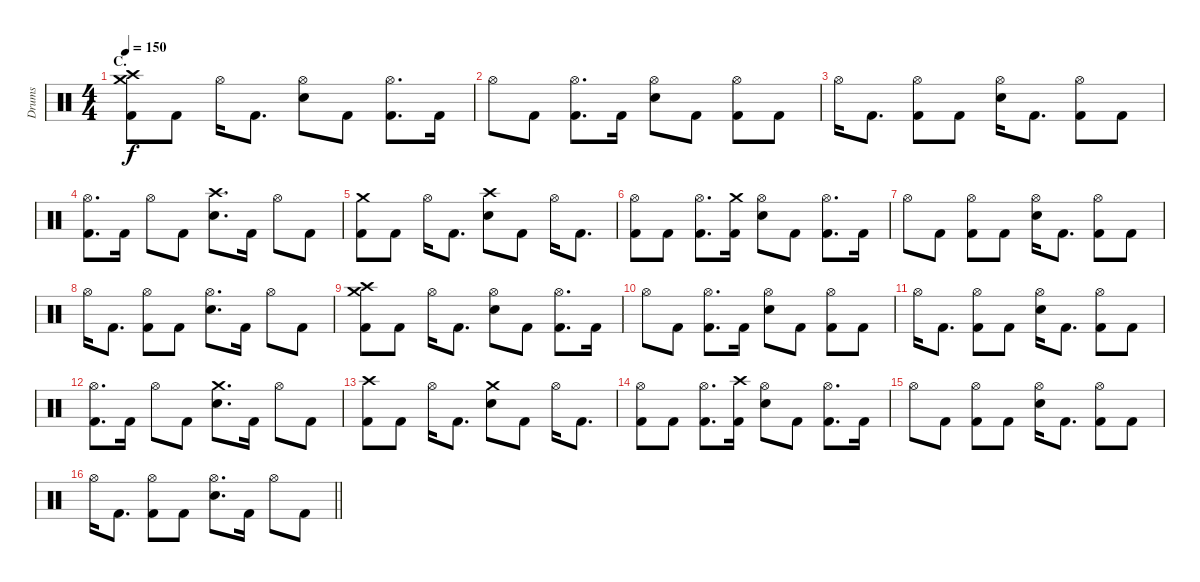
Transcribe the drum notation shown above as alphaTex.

\track ("Drums" "Drums") {instrument percussion}
\staff {score}
\articulation defaults
\ts (4 4)
\section ("" "C.")
\tempo 150
\clef neutral
\ks c
("Crash medium (hit)" "Crash high (hit)" "Kick (hit) 2").8{dy f} "Kick (hit) 2".8 "Hi-Hat (open)".16 "Kick (hit) 2".8{d} ("Hi-Hat (open)" "Electric Snare (hit)").8 "Kick (hit) 2".8 ("Hi-Hat (open)" "Kick (hit) 2").8{d} "Kick (hit) 2".16 |
"Hi-Hat (open)".8 "Kick (hit) 2".8 ("Hi-Hat (open)" "Kick (hit) 2").8{d} "Kick (hit) 2".16 ("Hi-Hat (open)" "Electric Snare (hit)").8 "Kick (hit) 2".8 ("Hi-Hat (open)" "Kick (hit) 2").8 "Kick (hit) 2".8 |
"Hi-Hat (open)".16 "Kick (hit) 2".8{d} ("Hi-Hat (open)" "Kick (hit) 2").8 "Kick (hit) 2".8 ("Hi-Hat (open)" "Electric Snare (hit)").16 "Kick (hit) 2".8{d} ("Hi-Hat (open)" "Kick (hit) 2").8 "Kick (hit) 2".8 |
("Hi-Hat (open)" "Kick (hit) 2").8{d} "Kick (hit) 2".16 "Hi-Hat (open)".8 "Kick (hit) 2".8 ("Crash high (hit)" "Electric Snare (hit)").8{d} "Kick (hit) 2".16 "Hi-Hat (open)".8 "Kick (hit) 2".8 |
("Crash medium (hit)" "Kick (hit) 2").8 "Kick (hit) 2".8 "Hi-Hat (open)".16 "Kick (hit) 2".8{d} ("Crash high (hit)" "Electric Snare (hit)").8 "Kick (hit) 2".8 "Hi-Hat (open)".16 "Kick (hit) 2".8{d} |
("Hi-Hat (open)" "Kick (hit) 2").8 "Kick (hit) 2".8 ("Hi-Hat (open)" "Kick (hit) 2").8{d} ("Crash medium (hit)" "Kick (hit) 2").16 ("Hi-Hat (open)" "Electric Snare (hit)").8 "Kick (hit) 2".8 ("Hi-Hat (open)" "Kick (hit) 2").8{d} "Kick (hit) 2".16 |
"Hi-Hat (open)".8 "Kick (hit) 2".8 ("Hi-Hat (open)" "Kick (hit) 2").8 "Kick (hit) 2".8 ("Hi-Hat (open)" "Electric Snare (hit)").16 "Kick (hit) 2".8{d} ("Hi-Hat (open)" "Kick (hit) 2").8 "Kick (hit) 2".8 |
"Hi-Hat (open)".16 "Kick (hit) 2".8{d} ("Hi-Hat (open)" "Kick (hit) 2").8 "Kick (hit) 2".8 ("Hi-Hat (open)" "Electric Snare (hit)").8{d} "Kick (hit) 2".16 "Hi-Hat (open)".8 "Kick (hit) 2".8 |
("Crash medium (hit)" "Crash high (hit)" "Kick (hit) 2").8 "Kick (hit) 2".8 "Hi-Hat (open)".16 "Kick (hit) 2".8{d} ("Hi-Hat (open)" "Electric Snare (hit)").8 "Kick (hit) 2".8 ("Hi-Hat (open)" "Kick (hit) 2").8{d} "Kick (hit) 2".16 |
"Hi-Hat (open)".8 "Kick (hit) 2".8 ("Hi-Hat (open)" "Kick (hit) 2").8{d} "Kick (hit) 2".16 ("Hi-Hat (open)" "Electric Snare (hit)").8 "Kick (hit) 2".8 ("Hi-Hat (open)" "Kick (hit) 2").8 "Kick (hit) 2".8 |
"Hi-Hat (open)".16 "Kick (hit) 2".8{d} ("Hi-Hat (open)" "Kick (hit) 2").8 "Kick (hit) 2".8 ("Hi-Hat (open)" "Electric Snare (hit)").16 "Kick (hit) 2".8{d} ("Hi-Hat (open)" "Kick (hit) 2").8 "Kick (hit) 2".8 |
("Hi-Hat (open)" "Kick (hit) 2").8{d} "Kick (hit) 2".16 "Hi-Hat (open)".8 "Kick (hit) 2".8 ("Crash medium (hit)" "Electric Snare (hit)").8{d} "Kick (hit) 2".16 "Hi-Hat (open)".8 "Kick (hit) 2".8 |
("Crash high (hit)" "Kick (hit) 2").8 "Kick (hit) 2".8 "Hi-Hat (open)".16 "Kick (hit) 2".8{d} ("Crash medium (hit)" "Electric Snare (hit)").8 "Kick (hit) 2".8 "Hi-Hat (open)".16 "Kick (hit) 2".8{d} |
("Hi-Hat (open)" "Kick (hit) 2").8 "Kick (hit) 2".8 ("Hi-Hat (open)" "Kick (hit) 2").8{d} ("Crash high (hit)" "Kick (hit) 2").16 ("Hi-Hat (open)" "Electric Snare (hit)").8 "Kick (hit) 2".8 ("Hi-Hat (open)" "Kick (hit) 2").8{d} "Kick (hit) 2".16 |
"Hi-Hat (open)".8 "Kick (hit) 2".8 ("Hi-Hat (open)" "Kick (hit) 2").8 "Kick (hit) 2".8 ("Hi-Hat (open)" "Electric Snare (hit)").16 "Kick (hit) 2".8{d} ("Hi-Hat (open)" "Kick (hit) 2").8 "Kick (hit) 2".8 |
\barLineRight lightlight "Hi-Hat (open)".16 "Kick (hit) 2".8{d}
("Hi-Hat (open)" "Kick (hit) 2").8 "Kick (hit) 2".8 ("Hi-Hat (open)" "Electric Snare (hit)").8{d} "Kick (hit) 2".16 "Hi-Hat (open)".8 "Kick (hit) 2".8
